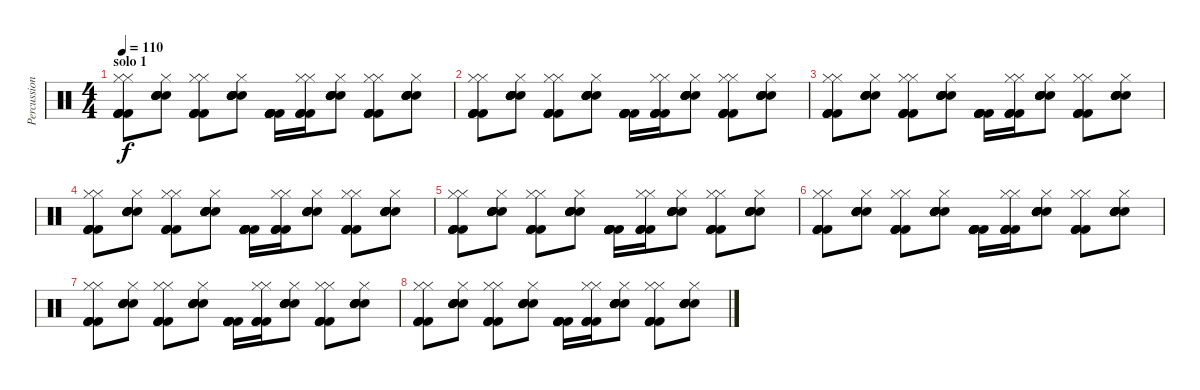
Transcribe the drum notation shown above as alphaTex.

\track ("Percussion" "Percussion") {instrument percussion}
\staff {score}
\articulation defaults
\ts (4 4)
\section ("" "solo 1")
\tempo 110
\clef neutral
\ks c
("Kick (hit) 2" "Kick (hit) 2" "Kick (hit) 2" "Kick (hit) 2" "Hi-Hat (closed)" "Hi-Hat (closed)").8{dy f} ("Snare (hit) 2" "Snare (hit) 2" "Snare (hit) 2" "Snare (hit) 2" "Snare (hit) 2" "Hi-Hat (closed)").8 ("Kick (hit) 2" "Kick (hit) 2" "Kick (hit) 2" "Kick (hit) 2" "Hi-Hat (closed)" "Hi-Hat (closed)").8 ("Snare (hit) 2" "Snare (hit) 2" "Snare (hit) 2" "Snare (hit) 2" "Snare (hit) 2" "Hi-Hat (closed)").8 ("Kick (hit) 2" "Kick (hit) 2" "Kick (hit) 2" "Kick (hit) 2" "Kick (hit) 2" "Kick (hit) 2").16 ("Kick (hit) 2" "Kick (hit) 2" "Kick (hit) 2" "Kick (hit) 2" "Hi-Hat (closed)" "Hi-Hat (closed)").16 ("Snare (hit) 2" "Snare (hit) 2" "Snare (hit) 2" "Snare (hit) 2" "Snare (hit) 2" "Hi-Hat (closed)").8 ("Kick (hit) 2" "Kick (hit) 2" "Kick (hit) 2" "Kick (hit) 2" "Hi-Hat (closed)" "Hi-Hat (closed)").8 ("Snare (hit) 2" "Snare (hit) 2" "Snare (hit) 2" "Snare (hit) 2" "Snare (hit) 2" "Hi-Hat (closed)").8 |
("Kick (hit) 2" "Kick (hit) 2" "Kick (hit) 2" "Kick (hit) 2" "Hi-Hat (closed)" "Hi-Hat (closed)").8 ("Snare (hit) 2" "Snare (hit) 2" "Snare (hit) 2" "Snare (hit) 2" "Snare (hit) 2" "Hi-Hat (closed)").8 ("Kick (hit) 2" "Kick (hit) 2" "Kick (hit) 2" "Kick (hit) 2" "Hi-Hat (closed)" "Hi-Hat (closed)").8 ("Snare (hit) 2" "Snare (hit) 2" "Snare (hit) 2" "Snare (hit) 2" "Snare (hit) 2" "Hi-Hat (closed)").8 ("Kick (hit) 2" "Kick (hit) 2" "Kick (hit) 2" "Kick (hit) 2" "Kick (hit) 2" "Kick (hit) 2").16 ("Kick (hit) 2" "Kick (hit) 2" "Kick (hit) 2" "Kick (hit) 2" "Hi-Hat (closed)" "Hi-Hat (closed)").16 ("Snare (hit) 2" "Snare (hit) 2" "Snare (hit) 2" "Snare (hit) 2" "Snare (hit) 2" "Hi-Hat (closed)").8 ("Kick (hit) 2" "Kick (hit) 2" "Kick (hit) 2" "Kick (hit) 2" "Hi-Hat (closed)" "Hi-Hat (closed)").8 ("Snare (hit) 2" "Snare (hit) 2" "Snare (hit) 2" "Snare (hit) 2" "Snare (hit) 2" "Hi-Hat (closed)").8 |
("Kick (hit) 2" "Kick (hit) 2" "Kick (hit) 2" "Kick (hit) 2" "Hi-Hat (closed)" "Hi-Hat (closed)").8 ("Snare (hit) 2" "Snare (hit) 2" "Snare (hit) 2" "Snare (hit) 2" "Snare (hit) 2" "Hi-Hat (closed)").8 ("Kick (hit) 2" "Kick (hit) 2" "Kick (hit) 2" "Kick (hit) 2" "Hi-Hat (closed)" "Hi-Hat (closed)").8 ("Snare (hit) 2" "Snare (hit) 2" "Snare (hit) 2" "Snare (hit) 2" "Snare (hit) 2" "Hi-Hat (closed)").8 ("Kick (hit) 2" "Kick (hit) 2" "Kick (hit) 2" "Kick (hit) 2" "Kick (hit) 2" "Kick (hit) 2").16 ("Kick (hit) 2" "Kick (hit) 2" "Kick (hit) 2" "Kick (hit) 2" "Hi-Hat (closed)" "Hi-Hat (closed)").16 ("Snare (hit) 2" "Snare (hit) 2" "Snare (hit) 2" "Snare (hit) 2" "Snare (hit) 2" "Hi-Hat (closed)").8 ("Kick (hit) 2" "Kick (hit) 2" "Kick (hit) 2" "Kick (hit) 2" "Hi-Hat (closed)" "Hi-Hat (closed)").8 ("Snare (hit) 2" "Snare (hit) 2" "Snare (hit) 2" "Snare (hit) 2" "Snare (hit) 2" "Hi-Hat (closed)").8 |
("Kick (hit) 2" "Kick (hit) 2" "Kick (hit) 2" "Kick (hit) 2" "Hi-Hat (closed)" "Hi-Hat (closed)").8 ("Snare (hit) 2" "Snare (hit) 2" "Snare (hit) 2" "Snare (hit) 2" "Snare (hit) 2" "Hi-Hat (closed)").8 ("Kick (hit) 2" "Kick (hit) 2" "Kick (hit) 2" "Kick (hit) 2" "Hi-Hat (closed)" "Hi-Hat (closed)").8 ("Snare (hit) 2" "Snare (hit) 2" "Snare (hit) 2" "Snare (hit) 2" "Snare (hit) 2" "Hi-Hat (closed)").8 ("Kick (hit) 2" "Kick (hit) 2" "Kick (hit) 2" "Kick (hit) 2" "Kick (hit) 2" "Kick (hit) 2").16 ("Kick (hit) 2" "Kick (hit) 2" "Kick (hit) 2" "Kick (hit) 2" "Hi-Hat (closed)" "Hi-Hat (closed)").16 ("Snare (hit) 2" "Snare (hit) 2" "Snare (hit) 2" "Snare (hit) 2" "Snare (hit) 2" "Hi-Hat (closed)").8 ("Kick (hit) 2" "Kick (hit) 2" "Kick (hit) 2" "Kick (hit) 2" "Hi-Hat (closed)" "Hi-Hat (closed)").8 ("Snare (hit) 2" "Snare (hit) 2" "Snare (hit) 2" "Snare (hit) 2" "Snare (hit) 2" "Hi-Hat (closed)").8 |
("Kick (hit) 2" "Kick (hit) 2" "Kick (hit) 2" "Kick (hit) 2" "Hi-Hat (closed)" "Hi-Hat (closed)").8 ("Snare (hit) 2" "Snare (hit) 2" "Snare (hit) 2" "Snare (hit) 2" "Snare (hit) 2" "Hi-Hat (closed)").8 ("Kick (hit) 2" "Kick (hit) 2" "Kick (hit) 2" "Kick (hit) 2" "Hi-Hat (closed)" "Hi-Hat (closed)").8 ("Snare (hit) 2" "Snare (hit) 2" "Snare (hit) 2" "Snare (hit) 2" "Snare (hit) 2" "Hi-Hat (closed)").8 ("Kick (hit) 2" "Kick (hit) 2" "Kick (hit) 2" "Kick (hit) 2" "Kick (hit) 2" "Kick (hit) 2").16 ("Kick (hit) 2" "Kick (hit) 2" "Kick (hit) 2" "Kick (hit) 2" "Hi-Hat (closed)" "Hi-Hat (closed)").16 ("Snare (hit) 2" "Snare (hit) 2" "Snare (hit) 2" "Snare (hit) 2" "Snare (hit) 2" "Hi-Hat (closed)").8 ("Kick (hit) 2" "Kick (hit) 2" "Kick (hit) 2" "Kick (hit) 2" "Hi-Hat (closed)" "Hi-Hat (closed)").8 ("Snare (hit) 2" "Snare (hit) 2" "Snare (hit) 2" "Snare (hit) 2" "Snare (hit) 2" "Hi-Hat (closed)").8 |
("Kick (hit) 2" "Kick (hit) 2" "Kick (hit) 2" "Kick (hit) 2" "Hi-Hat (closed)" "Hi-Hat (closed)").8 ("Snare (hit) 2" "Snare (hit) 2" "Snare (hit) 2" "Snare (hit) 2" "Snare (hit) 2" "Hi-Hat (closed)").8 ("Kick (hit) 2" "Kick (hit) 2" "Kick (hit) 2" "Kick (hit) 2" "Hi-Hat (closed)" "Hi-Hat (closed)").8 ("Snare (hit) 2" "Snare (hit) 2" "Snare (hit) 2" "Snare (hit) 2" "Snare (hit) 2" "Hi-Hat (closed)").8 ("Kick (hit) 2" "Kick (hit) 2" "Kick (hit) 2" "Kick (hit) 2" "Kick (hit) 2" "Kick (hit) 2").16 ("Kick (hit) 2" "Kick (hit) 2" "Kick (hit) 2" "Kick (hit) 2" "Hi-Hat (closed)" "Hi-Hat (closed)").16 ("Snare (hit) 2" "Snare (hit) 2" "Snare (hit) 2" "Snare (hit) 2" "Snare (hit) 2" "Hi-Hat (closed)").8 ("Kick (hit) 2" "Kick (hit) 2" "Kick (hit) 2" "Kick (hit) 2" "Hi-Hat (closed)" "Hi-Hat (closed)").8 ("Snare (hit) 2" "Snare (hit) 2" "Snare (hit) 2" "Snare (hit) 2" "Snare (hit) 2" "Hi-Hat (closed)").8 |
("Kick (hit) 2" "Kick (hit) 2" "Kick (hit) 2" "Kick (hit) 2" "Hi-Hat (closed)" "Hi-Hat (closed)").8 ("Snare (hit) 2" "Snare (hit) 2" "Snare (hit) 2" "Snare (hit) 2" "Snare (hit) 2" "Hi-Hat (closed)").8 ("Kick (hit) 2" "Kick (hit) 2" "Kick (hit) 2" "Kick (hit) 2" "Hi-Hat (closed)" "Hi-Hat (closed)").8 ("Snare (hit) 2" "Snare (hit) 2" "Snare (hit) 2" "Snare (hit) 2" "Snare (hit) 2" "Hi-Hat (closed)").8 ("Kick (hit) 2" "Kick (hit) 2" "Kick (hit) 2" "Kick (hit) 2" "Kick (hit) 2" "Kick (hit) 2").16 ("Kick (hit) 2" "Kick (hit) 2" "Kick (hit) 2" "Kick (hit) 2" "Hi-Hat (closed)" "Hi-Hat (closed)").16 ("Snare (hit) 2" "Snare (hit) 2" "Snare (hit) 2" "Snare (hit) 2" "Snare (hit) 2" "Hi-Hat (closed)").8 ("Kick (hit) 2" "Kick (hit) 2" "Kick (hit) 2" "Kick (hit) 2" "Hi-Hat (closed)" "Hi-Hat (closed)").8 ("Snare (hit) 2" "Snare (hit) 2" "Snare (hit) 2" "Snare (hit) 2" "Snare (hit) 2" "Hi-Hat (closed)").8 |
("Kick (hit) 2" "Kick (hit) 2" "Kick (hit) 2" "Kick (hit) 2" "Hi-Hat (closed)" "Hi-Hat (closed)").8 ("Snare (hit) 2" "Snare (hit) 2" "Snare (hit) 2" "Snare (hit) 2" "Snare (hit) 2" "Hi-Hat (closed)").8 ("Kick (hit) 2" "Kick (hit) 2" "Kick (hit) 2" "Kick (hit) 2" "Hi-Hat (closed)" "Hi-Hat (closed)").8 ("Snare (hit) 2" "Snare (hit) 2" "Snare (hit) 2" "Snare (hit) 2" "Snare (hit) 2" "Hi-Hat (closed)").8 ("Kick (hit) 2" "Kick (hit) 2" "Kick (hit) 2" "Kick (hit) 2" "Kick (hit) 2" "Kick (hit) 2").16 ("Kick (hit) 2" "Kick (hit) 2" "Kick (hit) 2" "Kick (hit) 2" "Hi-Hat (closed)" "Hi-Hat (closed)").16 ("Snare (hit) 2" "Snare (hit) 2" "Snare (hit) 2" "Snare (hit) 2" "Snare (hit) 2" "Hi-Hat (closed)").8 ("Kick (hit) 2" "Kick (hit) 2" "Kick (hit) 2" "Kick (hit) 2" "Hi-Hat (closed)" "Hi-Hat (closed)").8 ("Snare (hit) 2" "Snare (hit) 2" "Snare (hit) 2" "Snare (hit) 2" "Snare (hit) 2" "Hi-Hat (closed)").8
